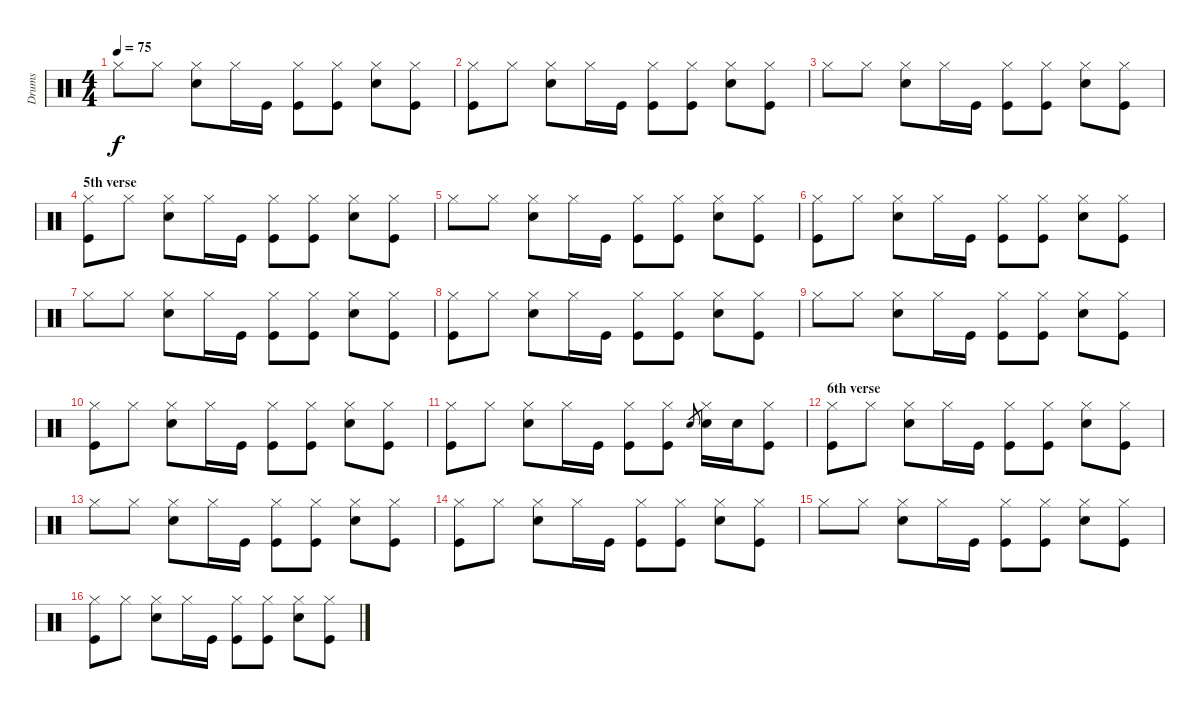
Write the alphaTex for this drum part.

\track ("Drums" "Drums") {instrument percussion}
\staff {score}
\articulation defaults
\ts (4 4)
\tempo 75
\clef neutral
\ks aminor "Hi-Hat (closed)".8{dy f} "Hi-Hat (closed)".8
("Hi-Hat (closed)" "Snare (hit) 2").8 "Hi-Hat (closed)".16 "Kick (hit)".16 ("Hi-Hat (closed)" "Kick (hit)").8 ("Hi-Hat (closed)" "Kick (hit)").8 ("Hi-Hat (closed)" "Snare (hit) 2").8 ("Hi-Hat (closed)" "Kick (hit)").8 |
("Hi-Hat (closed)" "Kick (hit)").8 "Hi-Hat (closed)".8 ("Hi-Hat (closed)" "Snare (hit) 2").8 "Hi-Hat (closed)".16 "Kick (hit)".16 ("Hi-Hat (closed)" "Kick (hit)").8 ("Hi-Hat (closed)" "Kick (hit)").8 ("Hi-Hat (closed)" "Snare (hit) 2").8 ("Hi-Hat (closed)" "Kick (hit)").8 |
"Hi-Hat (closed)".8 "Hi-Hat (closed)".8 ("Hi-Hat (closed)" "Snare (hit) 2").8 "Hi-Hat (closed)".16 "Kick (hit)".16 ("Hi-Hat (closed)" "Kick (hit)").8 ("Hi-Hat (closed)" "Kick (hit)").8 ("Hi-Hat (closed)" "Snare (hit) 2").8 ("Hi-Hat (closed)" "Kick (hit)").8 |
\section ("" "5th verse")
("Hi-Hat (closed)" "Kick (hit)").8 "Hi-Hat (closed)".8 ("Hi-Hat (closed)" "Snare (hit) 2").8 "Hi-Hat (closed)".16 "Kick (hit)".16 ("Hi-Hat (closed)" "Kick (hit)").8 ("Hi-Hat (closed)" "Kick (hit)").8 ("Hi-Hat (closed)" "Snare (hit) 2").8 ("Hi-Hat (closed)" "Kick (hit)").8 |
"Hi-Hat (closed)".8 "Hi-Hat (closed)".8 ("Hi-Hat (closed)" "Snare (hit) 2").8 "Hi-Hat (closed)".16 "Kick (hit)".16 ("Hi-Hat (closed)" "Kick (hit)").8 ("Hi-Hat (closed)" "Kick (hit)").8 ("Hi-Hat (closed)" "Snare (hit) 2").8 ("Hi-Hat (closed)" "Kick (hit)").8 |
("Hi-Hat (closed)" "Kick (hit)").8 "Hi-Hat (closed)".8 ("Hi-Hat (closed)" "Snare (hit) 2").8 "Hi-Hat (closed)".16 "Kick (hit)".16 ("Hi-Hat (closed)" "Kick (hit)").8 ("Hi-Hat (closed)" "Kick (hit)").8 ("Hi-Hat (closed)" "Snare (hit) 2").8 ("Hi-Hat (closed)" "Kick (hit)").8 |
"Hi-Hat (closed)".8 "Hi-Hat (closed)".8 ("Hi-Hat (closed)" "Snare (hit) 2").8 "Hi-Hat (closed)".16 "Kick (hit)".16 ("Hi-Hat (closed)" "Kick (hit)").8 ("Hi-Hat (closed)" "Kick (hit)").8 ("Hi-Hat (closed)" "Snare (hit) 2").8 ("Hi-Hat (closed)" "Kick (hit)").8 |
("Hi-Hat (closed)" "Kick (hit)").8 "Hi-Hat (closed)".8 ("Hi-Hat (closed)" "Snare (hit) 2").8 "Hi-Hat (closed)".16 "Kick (hit)".16 ("Hi-Hat (closed)" "Kick (hit)").8 ("Hi-Hat (closed)" "Kick (hit)").8 ("Hi-Hat (closed)" "Snare (hit) 2").8 ("Hi-Hat (closed)" "Kick (hit)").8 |
"Hi-Hat (closed)".8 "Hi-Hat (closed)".8 ("Hi-Hat (closed)" "Snare (hit) 2").8 "Hi-Hat (closed)".16 "Kick (hit)".16 ("Hi-Hat (closed)" "Kick (hit)").8 ("Hi-Hat (closed)" "Kick (hit)").8 ("Hi-Hat (closed)" "Snare (hit) 2").8 ("Hi-Hat (closed)" "Kick (hit)").8 |
("Hi-Hat (closed)" "Kick (hit)").8 "Hi-Hat (closed)".8 ("Hi-Hat (closed)" "Snare (hit) 2").8 "Hi-Hat (closed)".16 "Kick (hit)".16 ("Hi-Hat (closed)" "Kick (hit)").8 ("Hi-Hat (closed)" "Kick (hit)").8 ("Hi-Hat (closed)" "Snare (hit) 2").8 ("Hi-Hat (closed)" "Kick (hit)").8 |
("Hi-Hat (closed)" "Kick (hit)").8 "Hi-Hat (closed)".8 ("Hi-Hat (closed)" "Snare (hit) 2").8 "Hi-Hat (closed)".16 "Kick (hit)".16 ("Hi-Hat (closed)" "Kick (hit)").8 ("Hi-Hat (closed)" "Kick (hit)").8 "Snare (hit) 2".8{gr} ("Hi-Hat (closed)" "Snare (hit) 2").16 "Snare (hit) 2".16 ("Hi-Hat (closed)" "Kick (hit)").8 |
\section ("" "6th verse")
("Hi-Hat (closed)" "Kick (hit)").8 "Hi-Hat (closed)".8 ("Hi-Hat (closed)" "Snare (hit) 2").8 "Hi-Hat (closed)".16 "Kick (hit)".16 ("Hi-Hat (closed)" "Kick (hit)").8 ("Hi-Hat (closed)" "Kick (hit)").8 ("Hi-Hat (closed)" "Snare (hit) 2").8 ("Hi-Hat (closed)" "Kick (hit)").8 |
"Hi-Hat (closed)".8 "Hi-Hat (closed)".8 ("Hi-Hat (closed)" "Snare (hit) 2").8 "Hi-Hat (closed)".16 "Kick (hit)".16 ("Hi-Hat (closed)" "Kick (hit)").8 ("Hi-Hat (closed)" "Kick (hit)").8 ("Hi-Hat (closed)" "Snare (hit) 2").8 ("Hi-Hat (closed)" "Kick (hit)").8 |
("Hi-Hat (closed)" "Kick (hit)").8 "Hi-Hat (closed)".8 ("Hi-Hat (closed)" "Snare (hit) 2").8 "Hi-Hat (closed)".16 "Kick (hit)".16 ("Hi-Hat (closed)" "Kick (hit)").8 ("Hi-Hat (closed)" "Kick (hit)").8 ("Hi-Hat (closed)" "Snare (hit) 2").8 ("Hi-Hat (closed)" "Kick (hit)").8 |
"Hi-Hat (closed)".8 "Hi-Hat (closed)".8 ("Hi-Hat (closed)" "Snare (hit) 2").8 "Hi-Hat (closed)".16 "Kick (hit)".16 ("Hi-Hat (closed)" "Kick (hit)").8 ("Hi-Hat (closed)" "Kick (hit)").8 ("Hi-Hat (closed)" "Snare (hit) 2").8 ("Hi-Hat (closed)" "Kick (hit)").8 |
("Hi-Hat (closed)" "Kick (hit)").8 "Hi-Hat (closed)".8 ("Hi-Hat (closed)" "Snare (hit) 2").8 "Hi-Hat (closed)".16 "Kick (hit)".16 ("Hi-Hat (closed)" "Kick (hit)").8 ("Hi-Hat (closed)" "Kick (hit)").8 ("Hi-Hat (closed)" "Snare (hit) 2").8 ("Hi-Hat (closed)" "Kick (hit)").8
